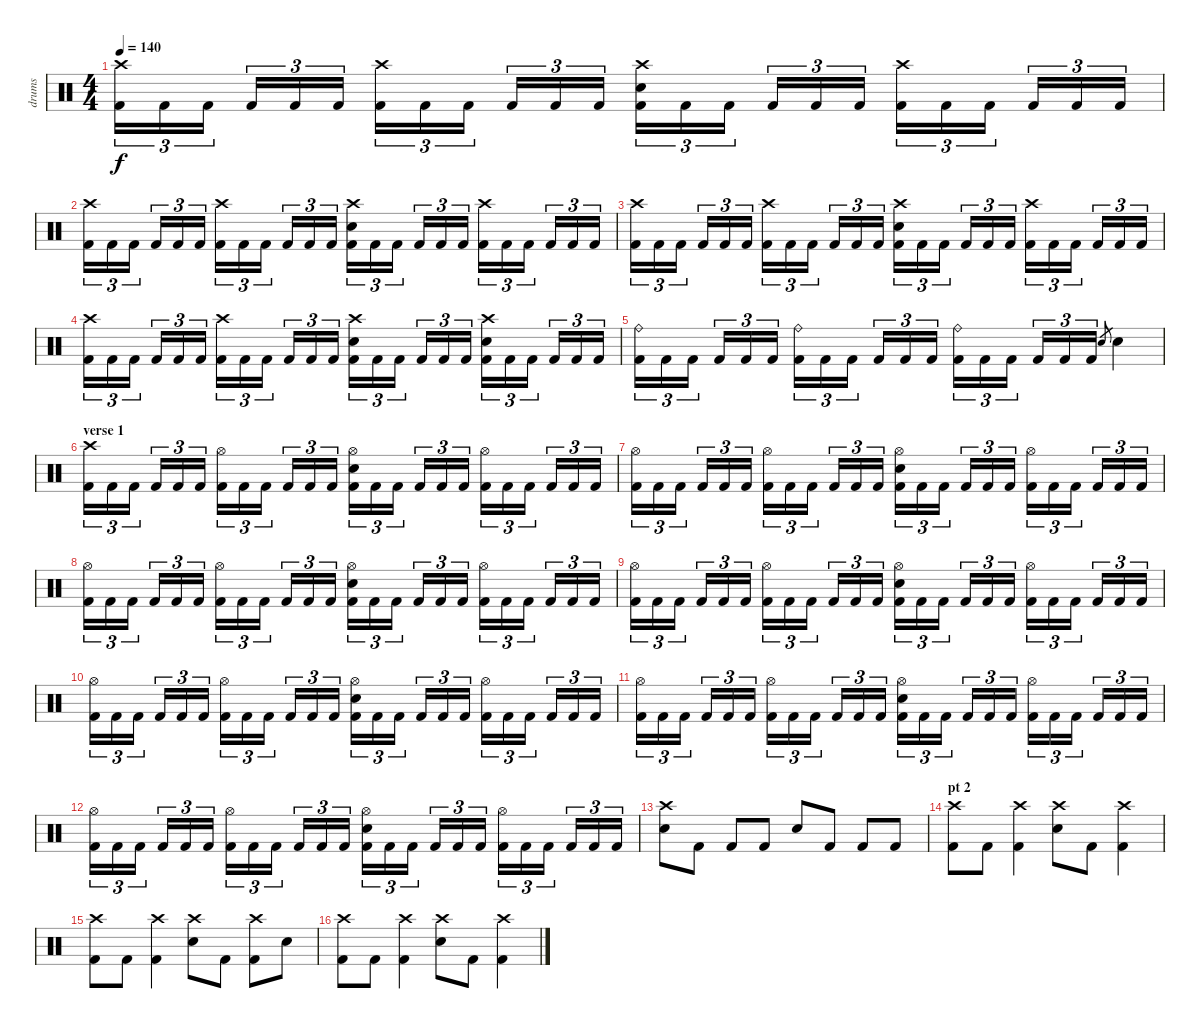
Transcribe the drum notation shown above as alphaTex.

\track ("drums" "drums") {instrument percussion}
\staff {score}
\articulation defaults
\ts (4 4)
\tempo 140
\clef neutral
\ks c
("Crash high (hit)" "Kick (hit) 2").16{tu (3 2) dy f} "Kick (hit) 2".16{tu (3 2)} "Kick (hit) 2".16{tu (3 2)} "Kick (hit) 2".16{tu (3 2)} "Kick (hit) 2".16{tu (3 2)} "Kick (hit) 2".16{tu (3 2)} ("Crash high (hit)" "Kick (hit) 2").16{tu (3 2)} "Kick (hit) 2".16{tu (3 2)} "Kick (hit) 2".16{tu (3 2)} "Kick (hit) 2".16{tu (3 2)} "Kick (hit) 2".16{tu (3 2)} "Kick (hit) 2".16{tu (3 2)} ("Crash high (hit)" "Electric Snare (hit)" "Kick (hit) 2").16{tu (3 2)} "Kick (hit) 2".16{tu (3 2)} "Kick (hit) 2".16{tu (3 2)} "Kick (hit) 2".16{tu (3 2)} "Kick (hit) 2".16{tu (3 2)} "Kick (hit) 2".16{tu (3 2)} ("Crash high (hit)" "Kick (hit) 2").16{tu (3 2)} "Kick (hit) 2".16{tu (3 2)} "Kick (hit) 2".16{tu (3 2)} "Kick (hit) 2".16{tu (3 2)} "Kick (hit) 2".16{tu (3 2)} "Kick (hit) 2".16{tu (3 2)} |
("Crash high (hit)" "Kick (hit) 2").16{tu (3 2)} "Kick (hit) 2".16{tu (3 2)} "Kick (hit) 2".16{tu (3 2)} "Kick (hit) 2".16{tu (3 2)} "Kick (hit) 2".16{tu (3 2)} "Kick (hit) 2".16{tu (3 2)} ("Crash high (hit)" "Kick (hit) 2").16{tu (3 2)} "Kick (hit) 2".16{tu (3 2)} "Kick (hit) 2".16{tu (3 2)} "Kick (hit) 2".16{tu (3 2)} "Kick (hit) 2".16{tu (3 2)} "Kick (hit) 2".16{tu (3 2)} ("Crash high (hit)" "Electric Snare (hit)" "Kick (hit) 2").16{tu (3 2)} "Kick (hit) 2".16{tu (3 2)} "Kick (hit) 2".16{tu (3 2)} "Kick (hit) 2".16{tu (3 2)} "Kick (hit) 2".16{tu (3 2)} "Kick (hit) 2".16{tu (3 2)} ("Crash high (hit)" "Kick (hit) 2").16{tu (3 2)} "Kick (hit) 2".16{tu (3 2)} "Kick (hit) 2".16{tu (3 2)} "Kick (hit) 2".16{tu (3 2)} "Kick (hit) 2".16{tu (3 2)} "Kick (hit) 2".16{tu (3 2)} |
("Crash high (hit)" "Kick (hit) 2").16{tu (3 2)} "Kick (hit) 2".16{tu (3 2)} "Kick (hit) 2".16{tu (3 2)} "Kick (hit) 2".16{tu (3 2)} "Kick (hit) 2".16{tu (3 2)} "Kick (hit) 2".16{tu (3 2)} ("Crash high (hit)" "Kick (hit) 2").16{tu (3 2)} "Kick (hit) 2".16{tu (3 2)} "Kick (hit) 2".16{tu (3 2)} "Kick (hit) 2".16{tu (3 2)} "Kick (hit) 2".16{tu (3 2)} "Kick (hit) 2".16{tu (3 2)} ("Crash high (hit)" "Electric Snare (hit)" "Kick (hit) 2").16{tu (3 2)} "Kick (hit) 2".16{tu (3 2)} "Kick (hit) 2".16{tu (3 2)} "Kick (hit) 2".16{tu (3 2)} "Kick (hit) 2".16{tu (3 2)} "Kick (hit) 2".16{tu (3 2)} ("Crash high (hit)" "Kick (hit) 2").16{tu (3 2)} "Kick (hit) 2".16{tu (3 2)} "Kick (hit) 2".16{tu (3 2)} "Kick (hit) 2".16{tu (3 2)} "Kick (hit) 2".16{tu (3 2)} "Kick (hit) 2".16{tu (3 2)} |
("Crash high (hit)" "Kick (hit) 2").16{tu (3 2)} "Kick (hit) 2".16{tu (3 2)} "Kick (hit) 2".16{tu (3 2)} "Kick (hit) 2".16{tu (3 2)} "Kick (hit) 2".16{tu (3 2)} "Kick (hit) 2".16{tu (3 2)} ("Crash high (hit)" "Kick (hit) 2").16{tu (3 2)} "Kick (hit) 2".16{tu (3 2)} "Kick (hit) 2".16{tu (3 2)} "Kick (hit) 2".16{tu (3 2)} "Kick (hit) 2".16{tu (3 2)} "Kick (hit) 2".16{tu (3 2)} ("Crash high (hit)" "Electric Snare (hit)" "Kick (hit) 2").16{tu (3 2)} "Kick (hit) 2".16{tu (3 2)} "Kick (hit) 2".16{tu (3 2)} "Kick (hit) 2".16{tu (3 2)} "Kick (hit) 2".16{tu (3 2)} "Kick (hit) 2".16{tu (3 2)} ("Crash high (hit)" "Electric Snare (hit)" "Kick (hit) 2").16{tu (3 2)} "Kick (hit) 2".16{tu (3 2)} "Kick (hit) 2".16{tu (3 2)} "Kick (hit) 2".16{tu (3 2)} "Kick (hit) 2".16{tu (3 2)} "Kick (hit) 2".16{tu (3 2)} |
("Ride (bell)" "Kick (hit) 2").16{tu (3 2)} "Kick (hit) 2".16{tu (3 2)} "Kick (hit) 2".16{tu (3 2)} "Kick (hit) 2".16{tu (3 2)} "Kick (hit) 2".16{tu (3 2)} "Kick (hit) 2".16{tu (3 2)} ("Ride (bell)" "Kick (hit) 2").16{tu (3 2)} "Kick (hit) 2".16{tu (3 2)} "Kick (hit) 2".16{tu (3 2)} "Kick (hit) 2".16{tu (3 2)} "Kick (hit) 2".16{tu (3 2)} "Kick (hit) 2".16{tu (3 2)} ("Ride (bell)" "Kick (hit) 2").16{tu (3 2)} "Kick (hit) 2".16{tu (3 2)} "Kick (hit) 2".16{tu (3 2)} "Kick (hit) 2".16{tu (3 2)} "Kick (hit) 2".16{tu (3 2)} "Kick (hit) 2".16{tu (3 2)} "Electric Snare (hit)".8{gr} "Electric Snare (hit)".4 |
\section ("" "verse 1")
("Crash high (hit)" "Kick (hit) 2").16{tu (3 2)} "Kick (hit) 2".16{tu (3 2)} "Kick (hit) 2".16{tu (3 2)} "Kick (hit) 2".16{tu (3 2)} "Kick (hit) 2".16{tu (3 2)} "Kick (hit) 2".16{tu (3 2)} ("Hi-Hat (open)" "Kick (hit) 2").16{tu (3 2)} "Kick (hit) 2".16{tu (3 2)} "Kick (hit) 2".16{tu (3 2)} "Kick (hit) 2".16{tu (3 2)} "Kick (hit) 2".16{tu (3 2)} "Kick (hit) 2".16{tu (3 2)} ("Hi-Hat (open)" "Electric Snare (hit)" "Kick (hit) 2").16{tu (3 2)} "Kick (hit) 2".16{tu (3 2)} "Kick (hit) 2".16{tu (3 2)} "Kick (hit) 2".16{tu (3 2)} "Kick (hit) 2".16{tu (3 2)} "Kick (hit) 2".16{tu (3 2)} ("Hi-Hat (open)" "Kick (hit) 2").16{tu (3 2)} "Kick (hit) 2".16{tu (3 2)} "Kick (hit) 2".16{tu (3 2)} "Kick (hit) 2".16{tu (3 2)} "Kick (hit) 2".16{tu (3 2)} "Kick (hit) 2".16{tu (3 2)} |
("Hi-Hat (open)" "Kick (hit) 2").16{tu (3 2)} "Kick (hit) 2".16{tu (3 2)} "Kick (hit) 2".16{tu (3 2)} "Kick (hit) 2".16{tu (3 2)} "Kick (hit) 2".16{tu (3 2)} "Kick (hit) 2".16{tu (3 2)} ("Hi-Hat (open)" "Kick (hit) 2").16{tu (3 2)} "Kick (hit) 2".16{tu (3 2)} "Kick (hit) 2".16{tu (3 2)} "Kick (hit) 2".16{tu (3 2)} "Kick (hit) 2".16{tu (3 2)} "Kick (hit) 2".16{tu (3 2)} ("Hi-Hat (open)" "Electric Snare (hit)" "Kick (hit) 2").16{tu (3 2)} "Kick (hit) 2".16{tu (3 2)} "Kick (hit) 2".16{tu (3 2)} "Kick (hit) 2".16{tu (3 2)} "Kick (hit) 2".16{tu (3 2)} "Kick (hit) 2".16{tu (3 2)} ("Hi-Hat (open)" "Kick (hit) 2").16{tu (3 2)} "Kick (hit) 2".16{tu (3 2)} "Kick (hit) 2".16{tu (3 2)} "Kick (hit) 2".16{tu (3 2)} "Kick (hit) 2".16{tu (3 2)} "Kick (hit) 2".16{tu (3 2)} |
("Hi-Hat (open)" "Kick (hit) 2").16{tu (3 2)} "Kick (hit) 2".16{tu (3 2)} "Kick (hit) 2".16{tu (3 2)} "Kick (hit) 2".16{tu (3 2)} "Kick (hit) 2".16{tu (3 2)} "Kick (hit) 2".16{tu (3 2)} ("Hi-Hat (open)" "Kick (hit) 2").16{tu (3 2)} "Kick (hit) 2".16{tu (3 2)} "Kick (hit) 2".16{tu (3 2)} "Kick (hit) 2".16{tu (3 2)} "Kick (hit) 2".16{tu (3 2)} "Kick (hit) 2".16{tu (3 2)} ("Hi-Hat (open)" "Electric Snare (hit)" "Kick (hit) 2").16{tu (3 2)} "Kick (hit) 2".16{tu (3 2)} "Kick (hit) 2".16{tu (3 2)} "Kick (hit) 2".16{tu (3 2)} "Kick (hit) 2".16{tu (3 2)} "Kick (hit) 2".16{tu (3 2)} ("Hi-Hat (open)" "Kick (hit) 2").16{tu (3 2)} "Kick (hit) 2".16{tu (3 2)} "Kick (hit) 2".16{tu (3 2)} "Kick (hit) 2".16{tu (3 2)} "Kick (hit) 2".16{tu (3 2)} "Kick (hit) 2".16{tu (3 2)} |
("Hi-Hat (open)" "Kick (hit) 2").16{tu (3 2)} "Kick (hit) 2".16{tu (3 2)} "Kick (hit) 2".16{tu (3 2)} "Kick (hit) 2".16{tu (3 2)} "Kick (hit) 2".16{tu (3 2)} "Kick (hit) 2".16{tu (3 2)} ("Hi-Hat (open)" "Kick (hit) 2").16{tu (3 2)} "Kick (hit) 2".16{tu (3 2)} "Kick (hit) 2".16{tu (3 2)} "Kick (hit) 2".16{tu (3 2)} "Kick (hit) 2".16{tu (3 2)} "Kick (hit) 2".16{tu (3 2)} ("Hi-Hat (open)" "Electric Snare (hit)" "Kick (hit) 2").16{tu (3 2)} "Kick (hit) 2".16{tu (3 2)} "Kick (hit) 2".16{tu (3 2)} "Kick (hit) 2".16{tu (3 2)} "Kick (hit) 2".16{tu (3 2)} "Kick (hit) 2".16{tu (3 2)} ("Hi-Hat (open)" "Kick (hit) 2").16{tu (3 2)} "Kick (hit) 2".16{tu (3 2)} "Kick (hit) 2".16{tu (3 2)} "Kick (hit) 2".16{tu (3 2)} "Kick (hit) 2".16{tu (3 2)} "Kick (hit) 2".16{tu (3 2)} |
("Hi-Hat (open)" "Kick (hit) 2").16{tu (3 2)} "Kick (hit) 2".16{tu (3 2)} "Kick (hit) 2".16{tu (3 2)} "Kick (hit) 2".16{tu (3 2)} "Kick (hit) 2".16{tu (3 2)} "Kick (hit) 2".16{tu (3 2)} ("Hi-Hat (open)" "Kick (hit) 2").16{tu (3 2)} "Kick (hit) 2".16{tu (3 2)} "Kick (hit) 2".16{tu (3 2)} "Kick (hit) 2".16{tu (3 2)} "Kick (hit) 2".16{tu (3 2)} "Kick (hit) 2".16{tu (3 2)} ("Hi-Hat (open)" "Electric Snare (hit)" "Kick (hit) 2").16{tu (3 2)} "Kick (hit) 2".16{tu (3 2)} "Kick (hit) 2".16{tu (3 2)} "Kick (hit) 2".16{tu (3 2)} "Kick (hit) 2".16{tu (3 2)} "Kick (hit) 2".16{tu (3 2)} ("Hi-Hat (open)" "Kick (hit) 2").16{tu (3 2)} "Kick (hit) 2".16{tu (3 2)} "Kick (hit) 2".16{tu (3 2)} "Kick (hit) 2".16{tu (3 2)} "Kick (hit) 2".16{tu (3 2)} "Kick (hit) 2".16{tu (3 2)} |
("Hi-Hat (open)" "Kick (hit) 2").16{tu (3 2)} "Kick (hit) 2".16{tu (3 2)} "Kick (hit) 2".16{tu (3 2)} "Kick (hit) 2".16{tu (3 2)} "Kick (hit) 2".16{tu (3 2)} "Kick (hit) 2".16{tu (3 2)} ("Hi-Hat (open)" "Kick (hit) 2").16{tu (3 2)} "Kick (hit) 2".16{tu (3 2)} "Kick (hit) 2".16{tu (3 2)} "Kick (hit) 2".16{tu (3 2)} "Kick (hit) 2".16{tu (3 2)} "Kick (hit) 2".16{tu (3 2)} ("Hi-Hat (open)" "Electric Snare (hit)" "Kick (hit) 2").16{tu (3 2)} "Kick (hit) 2".16{tu (3 2)} "Kick (hit) 2".16{tu (3 2)} "Kick (hit) 2".16{tu (3 2)} "Kick (hit) 2".16{tu (3 2)} "Kick (hit) 2".16{tu (3 2)} ("Hi-Hat (open)" "Kick (hit) 2").16{tu (3 2)} "Kick (hit) 2".16{tu (3 2)} "Kick (hit) 2".16{tu (3 2)} "Kick (hit) 2".16{tu (3 2)} "Kick (hit) 2".16{tu (3 2)} "Kick (hit) 2".16{tu (3 2)} |
("Hi-Hat (open)" "Kick (hit) 2").16{tu (3 2)} "Kick (hit) 2".16{tu (3 2)} "Kick (hit) 2".16{tu (3 2)} "Kick (hit) 2".16{tu (3 2)} "Kick (hit) 2".16{tu (3 2)} "Kick (hit) 2".16{tu (3 2)} ("Hi-Hat (open)" "Kick (hit) 2").16{tu (3 2)} "Kick (hit) 2".16{tu (3 2)} "Kick (hit) 2".16{tu (3 2)} "Kick (hit) 2".16{tu (3 2)} "Kick (hit) 2".16{tu (3 2)} "Kick (hit) 2".16{tu (3 2)} ("Hi-Hat (open)" "Electric Snare (hit)" "Kick (hit) 2").16{tu (3 2)} "Kick (hit) 2".16{tu (3 2)} "Kick (hit) 2".16{tu (3 2)} "Kick (hit) 2".16{tu (3 2)} "Kick (hit) 2".16{tu (3 2)} "Kick (hit) 2".16{tu (3 2)} ("Hi-Hat (open)" "Kick (hit) 2").16{tu (3 2)} "Kick (hit) 2".16{tu (3 2)} "Kick (hit) 2".16{tu (3 2)} "Kick (hit) 2".16{tu (3 2)} "Kick (hit) 2".16{tu (3 2)} "Kick (hit) 2".16{tu (3 2)} |
("Crash high (hit)" "Electric Snare (hit)").8 "Kick (hit) 2".8 "Kick (hit) 2".8 "Kick (hit) 2".8 "Electric Snare (hit)".8 "Kick (hit) 2".8 "Kick (hit) 2".8 "Kick (hit) 2".8 |
\section ("" "pt 2")
("Crash high (hit)" "Kick (hit) 2").8 "Kick (hit) 2".8 ("Crash high (hit)" "Kick (hit) 2").4 ("Crash high (hit)" "Electric Snare (hit)").8 "Kick (hit) 2".8 ("Crash high (hit)" "Kick (hit) 2").4 |
("Crash high (hit)" "Kick (hit) 2").8 "Kick (hit) 2".8 ("Crash high (hit)" "Kick (hit) 2").4 ("Crash high (hit)" "Electric Snare (hit)").8 "Kick (hit) 2".8 ("Crash high (hit)" "Kick (hit) 2").8 "Electric Snare (hit)".8 |
("Crash high (hit)" "Kick (hit) 2").8 "Kick (hit) 2".8 ("Crash high (hit)" "Kick (hit) 2").4 ("Crash high (hit)" "Electric Snare (hit)").8 "Kick (hit) 2".8 ("Crash high (hit)" "Kick (hit) 2").4
